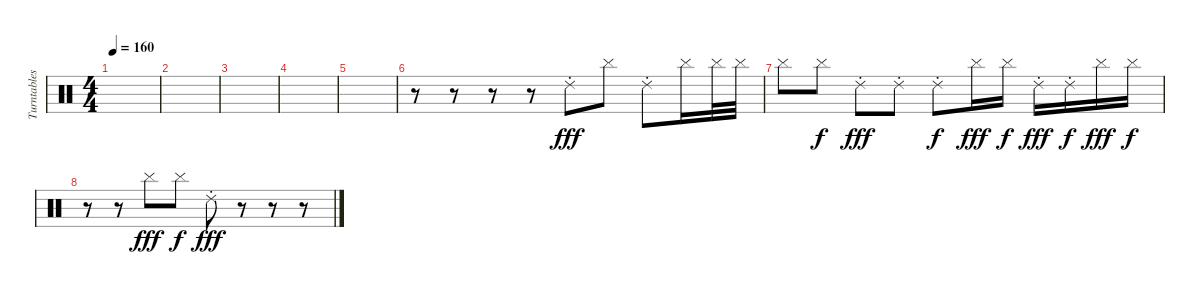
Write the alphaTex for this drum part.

\track ("Turntables" "Turntables") {instrument percussion}
\staff {score}
\articulation defaults
\ts (4 4)
\tempo 160
\clef neutral
\ks c
|
|
|
|
|
r.8 r.8 r.8 r.8 "Ride (choke) 2".8{dy fff} "Cymbal (hit)".8 "Ride (choke) 2".8 "Cymbal (hit)".16 "Cymbal (hit)".32 "Cymbal (hit)".32 |
"Cymbal (hit)".8 "Cymbal (hit)".8{dy f} "Ride (choke) 2".8{dy fff} "Ride (choke) 2".8 "Ride (choke) 2".8{dy f} "Cymbal (hit)".16{dy fff} "Cymbal (hit)".16{dy f} "Ride (choke) 2".16{dy fff} "Ride (choke) 2".16{dy f} "Cymbal (hit)".16{dy fff} "Cymbal (hit)".16{dy f} |
r.8 r.8 "Cymbal (hit)".8{dy fff} "Cymbal (hit)".8{dy f} "Ride (choke) 2".8{dy fff} r.8 r.8 r.8
